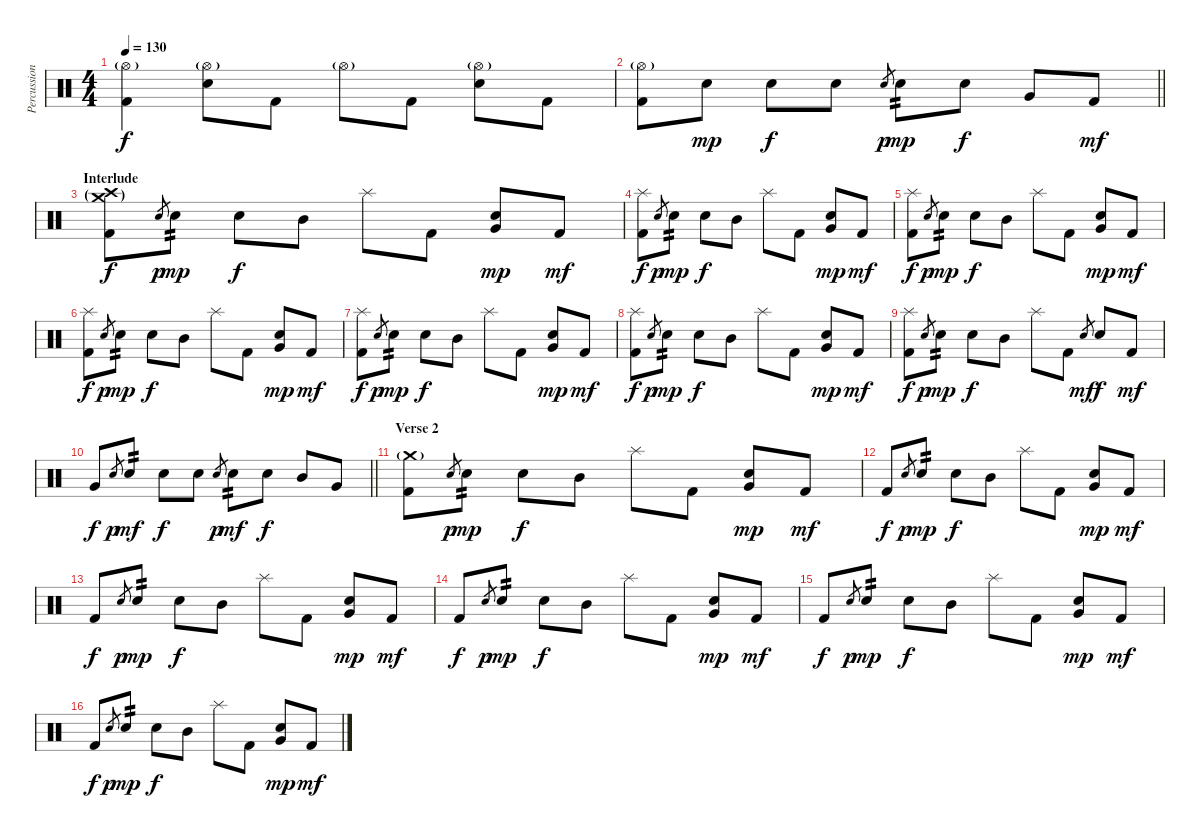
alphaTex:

\track ("Percussion" "Percussion") {instrument percussion}
\staff {score}
\articulation defaults
\ts (4 4)
\tempo 130
\clef neutral
\ks c
("Hi-Hat (open)"{g} "Kick (hit) 2").4{dy f} ("Hi-Hat (open)"{g} "Electric Snare (hit)").8 "Kick (hit) 2".8 "Hi-Hat (open)"{g}.8 "Kick (hit) 2".8 ("Hi-Hat (open)"{g} "Electric Snare (hit)").8 "Kick (hit) 2".8 |
\barLineRight lightlight
("Hi-Hat (open)"{g} "Kick (hit) 2").8 "Electric Snare (hit)".8{dy mp} "Electric Snare (hit)".8{dy f} "Electric Snare (hit)".8 "Electric Snare (hit)".8{gr dy p} "Electric Snare (hit)".8{tp 2 dy mp} "Electric Snare (hit)".8{dy f} "Very Low Tom (hit)".8 "Kick (hit) 2".8{dy mf} |
\section ("" "Interlude")
("Crash medium (hit)"{g} "Crash high (hit)"{g} "Kick (hit) 2").8{dy f} "Electric Snare (hit)".8{gr dy p} "Electric Snare (hit)".8{tp 2 dy mp} "Electric Snare (hit)".8{dy f} "Mid Tom (hit)".8 "Splash (hit)".8 "Kick (hit) 2".8 ("Electric Snare (hit)" "Very Low Tom (hit)").8{dy mp} "Kick (hit) 2".8{dy mf} |
("Splash (hit)" "Kick (hit) 2").8{dy f} "Electric Snare (hit)".8{gr dy p} "Electric Snare (hit)".8{tp 2 dy mp} "Electric Snare (hit)".8{dy f} "Mid Tom (hit)".8 "Splash (hit)".8 "Kick (hit) 2".8 ("Electric Snare (hit)" "Very Low Tom (hit)").8{dy mp} "Kick (hit) 2".8{dy mf} |
("Splash (hit)" "Kick (hit) 2").8{dy f} "Electric Snare (hit)".8{gr dy p} "Electric Snare (hit)".8{tp 2 dy mp} "Electric Snare (hit)".8{dy f} "Mid Tom (hit)".8 "Splash (hit)".8 "Kick (hit) 2".8 ("Electric Snare (hit)" "Very Low Tom (hit)").8{dy mp} "Kick (hit) 2".8{dy mf} |
("Splash (hit)" "Kick (hit) 2").8{dy f} "Electric Snare (hit)".8{gr dy p} "Electric Snare (hit)".8{tp 2 dy mp} "Electric Snare (hit)".8{dy f} "Mid Tom (hit)".8 "Splash (hit)".8 "Kick (hit) 2".8 ("Electric Snare (hit)" "Very Low Tom (hit)").8{dy mp} "Kick (hit) 2".8{dy mf} |
("Splash (hit)" "Kick (hit) 2").8{dy f} "Electric Snare (hit)".8{gr dy p} "Electric Snare (hit)".8{tp 2 dy mp} "Electric Snare (hit)".8{dy f} "Mid Tom (hit)".8 "Splash (hit)".8 "Kick (hit) 2".8 ("Electric Snare (hit)" "Very Low Tom (hit)").8{dy mp} "Kick (hit) 2".8{dy mf} |
("Splash (hit)" "Kick (hit) 2").8{dy f} "Electric Snare (hit)".8{gr dy p} "Electric Snare (hit)".8{tp 2 dy mp} "Electric Snare (hit)".8{dy f} "Mid Tom (hit)".8 "Splash (hit)".8 "Kick (hit) 2".8 ("Electric Snare (hit)" "Very Low Tom (hit)").8{dy mp} "Kick (hit) 2".8{dy mf} |
("Splash (hit)" "Kick (hit) 2").8{dy f} "Electric Snare (hit)".8{gr dy p} "Electric Snare (hit)".8{tp 2 dy mp} "Electric Snare (hit)".8{dy f} "Mid Tom (hit)".8 "Splash (hit)".8 "Kick (hit) 2".8 "Electric Snare (hit)".8{gr dy mf} "Electric Snare (hit)".8{dy f} "Kick (hit) 2".8{dy mf} |
\barLineRight lightlight "Very Low Tom (hit)".8{dy f} "Electric Snare (hit)".8{gr dy p} "Electric Snare (hit)".8{tp 2 dy mf} "Electric Snare (hit)".8{dy f} "Electric Snare (hit)".8 "Electric Snare (hit)".8{gr dy p} "Electric Snare (hit)".8{tp 2 dy mf} "Electric Snare (hit)".8{dy f} "Mid Tom (hit)".8 "Very Low Tom (hit)".8
|
\section ("" "Verse 2")
("Crash medium (hit)"{g} "Kick (hit) 2").8 "Electric Snare (hit)".8{gr dy p} "Electric Snare (hit)".8{tp 2 dy mp} "Electric Snare (hit)".8{dy f} "Mid Tom (hit)".8 "Splash (hit)".8 "Kick (hit) 2".8 ("Electric Snare (hit)" "Very Low Tom (hit)").8{dy mp} "Kick (hit) 2".8{dy mf} |
"Kick (hit) 2".8{dy f} "Electric Snare (hit)".8{gr dy p} "Electric Snare (hit)".8{tp 2 dy mp} "Electric Snare (hit)".8{dy f} "Mid Tom (hit)".8 "Splash (hit)".8 "Kick (hit) 2".8 ("Electric Snare (hit)" "Very Low Tom (hit)").8{dy mp} "Kick (hit) 2".8{dy mf} |
"Kick (hit) 2".8{dy f} "Electric Snare (hit)".8{gr dy p} "Electric Snare (hit)".8{tp 2 dy mp} "Electric Snare (hit)".8{dy f} "Mid Tom (hit)".8 "Splash (hit)".8 "Kick (hit) 2".8 ("Electric Snare (hit)" "Very Low Tom (hit)").8{dy mp} "Kick (hit) 2".8{dy mf} |
"Kick (hit) 2".8{dy f} "Electric Snare (hit)".8{gr dy p} "Electric Snare (hit)".8{tp 2 dy mp} "Electric Snare (hit)".8{dy f} "Mid Tom (hit)".8 "Splash (hit)".8 "Kick (hit) 2".8 ("Electric Snare (hit)" "Very Low Tom (hit)").8{dy mp} "Kick (hit) 2".8{dy mf} |
"Kick (hit) 2".8{dy f} "Electric Snare (hit)".8{gr dy p} "Electric Snare (hit)".8{tp 2 dy mp} "Electric Snare (hit)".8{dy f} "Mid Tom (hit)".8 "Splash (hit)".8 "Kick (hit) 2".8 ("Electric Snare (hit)" "Very Low Tom (hit)").8{dy mp} "Kick (hit) 2".8{dy mf} |
"Kick (hit) 2".8{dy f} "Electric Snare (hit)".8{gr dy p} "Electric Snare (hit)".8{tp 2 dy mp} "Electric Snare (hit)".8{dy f} "Mid Tom (hit)".8 "Splash (hit)".8 "Kick (hit) 2".8 ("Electric Snare (hit)" "Very Low Tom (hit)").8{dy mp} "Kick (hit) 2".8{dy mf}
